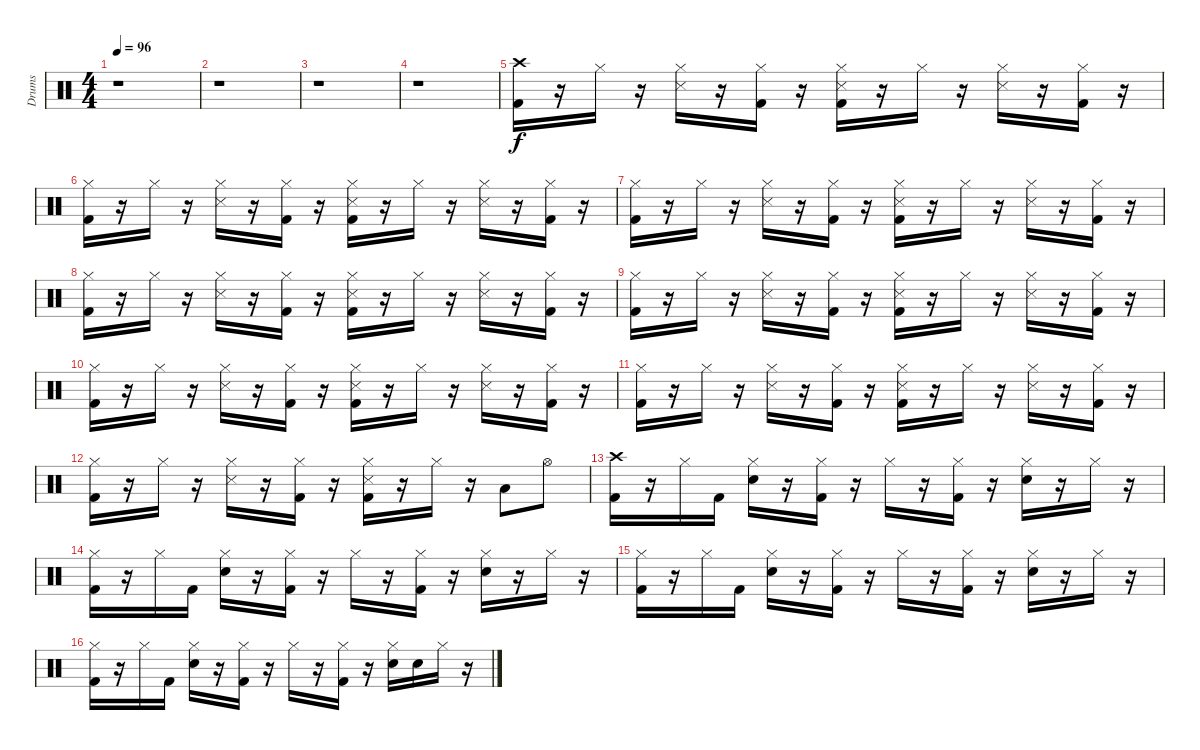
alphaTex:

\track ("Drums" "Drums") {instrument percussion}
\staff {score}
\articulation defaults
\ts (4 4)
\tempo 96
\clef neutral
\ks c
r.1{dy f} |
r.1 |
r.1 |
r.1 |
("Crash high (hit)" "Kick (hit) 2").16 r.16 "Hi-Hat (closed)".16 r.16 ("Hi-Hat (closed)" "Snare (side stick) 3").16 r.16 ("Hi-Hat (closed)" "Kick (hit) 2").16 r.16 ("Hi-Hat (closed)" "Snare (side stick) 3" "Kick (hit) 2").16 r.16 "Hi-Hat (closed)".16 r.16 ("Hi-Hat (closed)" "Snare (side stick) 3").16 r.16 ("Hi-Hat (closed)" "Kick (hit) 2").16 r.16 |
("Hi-Hat (closed)" "Kick (hit) 2").16 r.16 "Hi-Hat (closed)".16 r.16 ("Hi-Hat (closed)" "Snare (side stick) 3").16 r.16 ("Hi-Hat (closed)" "Kick (hit) 2").16 r.16 ("Hi-Hat (closed)" "Snare (side stick) 3" "Kick (hit) 2").16 r.16 "Hi-Hat (closed)".16 r.16 ("Hi-Hat (closed)" "Snare (side stick) 3").16 r.16 ("Hi-Hat (closed)" "Kick (hit) 2").16 r.16 |
("Hi-Hat (closed)" "Kick (hit) 2").16 r.16 "Hi-Hat (closed)".16 r.16 ("Hi-Hat (closed)" "Snare (side stick) 3").16 r.16 ("Hi-Hat (closed)" "Kick (hit) 2").16 r.16 ("Hi-Hat (closed)" "Snare (side stick) 3" "Kick (hit) 2").16 r.16 "Hi-Hat (closed)".16 r.16 ("Hi-Hat (closed)" "Snare (side stick) 3").16 r.16 ("Hi-Hat (closed)" "Kick (hit) 2").16 r.16 |
("Hi-Hat (closed)" "Kick (hit) 2").16 r.16 "Hi-Hat (closed)".16 r.16 ("Hi-Hat (closed)" "Snare (side stick) 3").16 r.16 ("Hi-Hat (closed)" "Kick (hit) 2").16 r.16 ("Hi-Hat (closed)" "Snare (side stick) 3" "Kick (hit) 2").16 r.16 "Hi-Hat (closed)".16 r.16 ("Hi-Hat (closed)" "Snare (side stick) 3").16 r.16 ("Hi-Hat (closed)" "Kick (hit) 2").16 r.16 |
("Hi-Hat (closed)" "Kick (hit) 2").16 r.16 "Hi-Hat (closed)".16 r.16 ("Hi-Hat (closed)" "Snare (side stick) 3").16 r.16 ("Hi-Hat (closed)" "Kick (hit) 2").16 r.16 ("Hi-Hat (closed)" "Snare (side stick) 3" "Kick (hit) 2").16 r.16 "Hi-Hat (closed)".16 r.16 ("Hi-Hat (closed)" "Snare (side stick) 3").16 r.16 ("Hi-Hat (closed)" "Kick (hit) 2").16 r.16 |
("Hi-Hat (closed)" "Kick (hit) 2").16 r.16 "Hi-Hat (closed)".16 r.16 ("Hi-Hat (closed)" "Snare (side stick) 3").16 r.16 ("Hi-Hat (closed)" "Kick (hit) 2").16 r.16 ("Hi-Hat (closed)" "Snare (side stick) 3" "Kick (hit) 2").16 r.16 "Hi-Hat (closed)".16 r.16 ("Hi-Hat (closed)" "Snare (side stick) 3").16 r.16 ("Hi-Hat (closed)" "Kick (hit) 2").16 r.16 |
("Hi-Hat (closed)" "Kick (hit) 2").16 r.16 "Hi-Hat (closed)".16 r.16 ("Hi-Hat (closed)" "Snare (side stick) 3").16 r.16 ("Hi-Hat (closed)" "Kick (hit) 2").16 r.16 ("Hi-Hat (closed)" "Snare (side stick) 3" "Kick (hit) 2").16 r.16 "Hi-Hat (closed)".16 r.16 ("Hi-Hat (closed)" "Snare (side stick) 3").16 r.16 ("Hi-Hat (closed)" "Kick (hit) 2").16 r.16 |
("Hi-Hat (closed)" "Kick (hit) 2").16 r.16 "Hi-Hat (closed)".16 r.16 ("Hi-Hat (closed)" "Snare (side stick) 3").16 r.16 ("Hi-Hat (closed)" "Kick (hit) 2").16 r.16 ("Hi-Hat (closed)" "Snare (side stick) 3" "Kick (hit) 2").16 r.16 "Hi-Hat (closed)".16 r.16 "Low Tom (hit)".8 "Hi-Hat (open)".8 |
("Crash high (hit)" "Kick (hit) 2").16 r.16 "Hi-Hat (closed)".16 "Kick (hit) 2".16 ("Hi-Hat (closed)" "Snare (hit) 2").16 r.16 ("Hi-Hat (closed)" "Kick (hit) 2").16 r.16 "Hi-Hat (closed)".16 r.16 ("Hi-Hat (closed)" "Kick (hit) 2").16 r.16 ("Hi-Hat (closed)" "Snare (hit) 2").16 r.16 "Hi-Hat (closed)".16 r.16 |
("Hi-Hat (closed)" "Kick (hit) 2").16 r.16 "Hi-Hat (closed)".16 "Kick (hit) 2".16 ("Hi-Hat (closed)" "Snare (hit) 2").16 r.16 ("Hi-Hat (closed)" "Kick (hit) 2").16 r.16 "Hi-Hat (closed)".16 r.16 ("Hi-Hat (closed)" "Kick (hit) 2").16 r.16 ("Hi-Hat (closed)" "Snare (hit) 2").16 r.16 "Hi-Hat (closed)".16 r.16 |
("Hi-Hat (closed)" "Kick (hit) 2").16 r.16 "Hi-Hat (closed)".16 "Kick (hit) 2".16 ("Hi-Hat (closed)" "Snare (hit) 2").16 r.16 ("Hi-Hat (closed)" "Kick (hit) 2").16 r.16 "Hi-Hat (closed)".16 r.16 ("Hi-Hat (closed)" "Kick (hit) 2").16 r.16 ("Hi-Hat (closed)" "Snare (hit) 2").16 r.16 "Hi-Hat (closed)".16 r.16 |
("Hi-Hat (closed)" "Kick (hit) 2").16 r.16 "Hi-Hat (closed)".16 "Kick (hit) 2".16 ("Hi-Hat (closed)" "Snare (hit) 2").16 r.16 ("Hi-Hat (closed)" "Kick (hit) 2").16 r.16 "Hi-Hat (closed)".16 r.16 ("Hi-Hat (closed)" "Kick (hit) 2").16 r.16 ("Hi-Hat (closed)" "Snare (hit) 2").16 "Snare (hit) 2".16 "Hi-Hat (closed)".16 r.16
